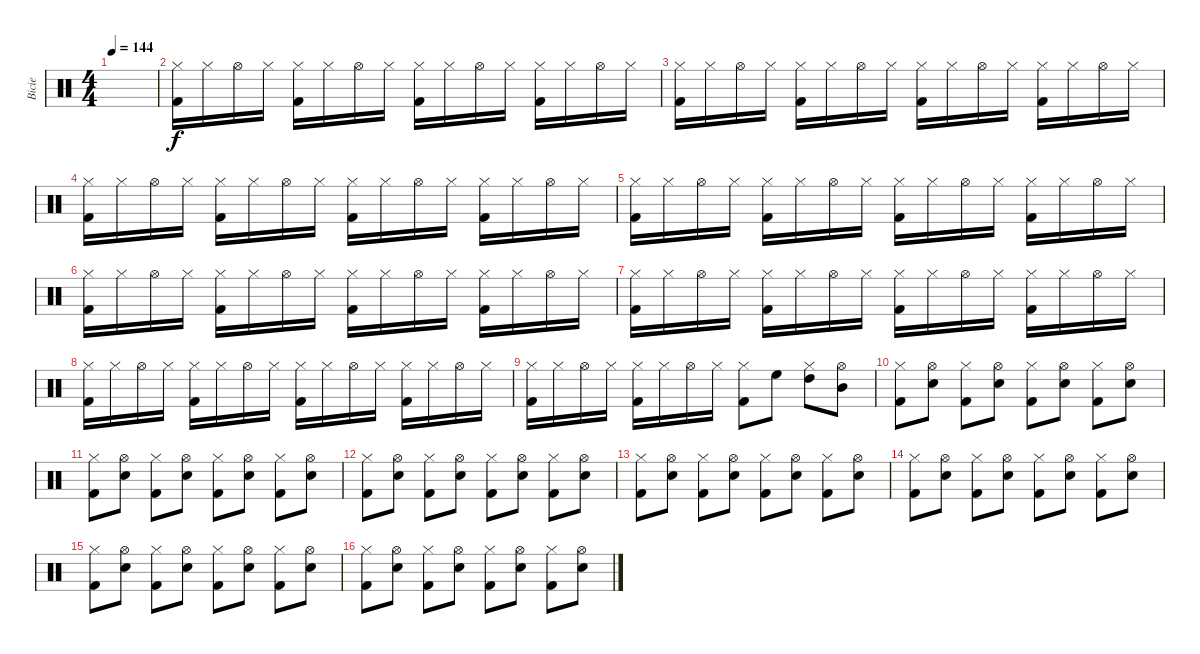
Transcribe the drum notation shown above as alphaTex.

\track ("Bicie" "Bicie") {instrument percussion}
\staff {score}
\articulation defaults
\ts (4 4)
\tempo 144
\clef neutral
\ks c
|
("Hi-Hat (closed)" "Kick (hit) 2").16 "Hi-Hat (closed)".16 "Hi-Hat (open)".16 "Hi-Hat (closed)".16 ("Hi-Hat (closed)" "Kick (hit) 2").16 "Hi-Hat (closed)".16 "Hi-Hat (open)".16 "Hi-Hat (closed)".16 ("Hi-Hat (closed)" "Kick (hit) 2").16 "Hi-Hat (closed)".16 "Hi-Hat (open)".16 "Hi-Hat (closed)".16 ("Hi-Hat (closed)" "Kick (hit) 2").16 "Hi-Hat (closed)".16 "Hi-Hat (open)".16 "Hi-Hat (closed)".16 |
("Hi-Hat (closed)" "Kick (hit) 2").16 "Hi-Hat (closed)".16 "Hi-Hat (open)".16 "Hi-Hat (closed)".16 ("Hi-Hat (closed)" "Kick (hit) 2").16 "Hi-Hat (closed)".16 "Hi-Hat (open)".16 "Hi-Hat (closed)".16 ("Hi-Hat (closed)" "Kick (hit) 2").16 "Hi-Hat (closed)".16 "Hi-Hat (open)".16 "Hi-Hat (closed)".16 ("Hi-Hat (closed)" "Kick (hit) 2").16 "Hi-Hat (closed)".16 "Hi-Hat (open)".16 "Hi-Hat (closed)".16 |
("Hi-Hat (closed)" "Kick (hit) 2").16 "Hi-Hat (closed)".16 "Hi-Hat (open)".16 "Hi-Hat (closed)".16 ("Hi-Hat (closed)" "Kick (hit) 2").16 "Hi-Hat (closed)".16 "Hi-Hat (open)".16 "Hi-Hat (closed)".16 ("Hi-Hat (closed)" "Kick (hit) 2").16 "Hi-Hat (closed)".16 "Hi-Hat (open)".16 "Hi-Hat (closed)".16 ("Hi-Hat (closed)" "Kick (hit) 2").16 "Hi-Hat (closed)".16 "Hi-Hat (open)".16 "Hi-Hat (closed)".16 |
("Hi-Hat (closed)" "Kick (hit) 2").16 "Hi-Hat (closed)".16 "Hi-Hat (open)".16 "Hi-Hat (closed)".16 ("Hi-Hat (closed)" "Kick (hit) 2").16 "Hi-Hat (closed)".16 "Hi-Hat (open)".16 "Hi-Hat (closed)".16 ("Hi-Hat (closed)" "Kick (hit) 2").16 "Hi-Hat (closed)".16 "Hi-Hat (open)".16 "Hi-Hat (closed)".16 ("Hi-Hat (closed)" "Kick (hit) 2").16 "Hi-Hat (closed)".16 "Hi-Hat (open)".16 "Hi-Hat (closed)".16 |
("Hi-Hat (closed)" "Kick (hit) 2").16 "Hi-Hat (closed)".16 "Hi-Hat (open)".16 "Hi-Hat (closed)".16 ("Hi-Hat (closed)" "Kick (hit) 2").16 "Hi-Hat (closed)".16 "Hi-Hat (open)".16 "Hi-Hat (closed)".16 ("Hi-Hat (closed)" "Kick (hit) 2").16 "Hi-Hat (closed)".16 "Hi-Hat (open)".16 "Hi-Hat (closed)".16 ("Hi-Hat (closed)" "Kick (hit) 2").16 "Hi-Hat (closed)".16 "Hi-Hat (open)".16 "Hi-Hat (closed)".16 |
("Hi-Hat (closed)" "Kick (hit) 2").16 "Hi-Hat (closed)".16 "Hi-Hat (open)".16 "Hi-Hat (closed)".16 ("Hi-Hat (closed)" "Kick (hit) 2").16 "Hi-Hat (closed)".16 "Hi-Hat (open)".16 "Hi-Hat (closed)".16 ("Hi-Hat (closed)" "Kick (hit) 2").16 "Hi-Hat (closed)".16 "Hi-Hat (open)".16 "Hi-Hat (closed)".16 ("Hi-Hat (closed)" "Kick (hit) 2").16 "Hi-Hat (closed)".16 "Hi-Hat (open)".16 "Hi-Hat (closed)".16 |
("Hi-Hat (closed)" "Kick (hit) 2").16 "Hi-Hat (closed)".16 "Hi-Hat (open)".16 "Hi-Hat (closed)".16 ("Hi-Hat (closed)" "Kick (hit) 2").16 "Hi-Hat (closed)".16 "Hi-Hat (open)".16 "Hi-Hat (closed)".16 ("Hi-Hat (closed)" "Kick (hit) 2").16 "Hi-Hat (closed)".16 "Hi-Hat (open)".16 "Hi-Hat (closed)".16 ("Hi-Hat (closed)" "Kick (hit) 2").16 "Hi-Hat (closed)".16 "Hi-Hat (open)".16 "Hi-Hat (closed)".16 |
("Hi-Hat (closed)" "Kick (hit) 2").16 "Hi-Hat (closed)".16 "Hi-Hat (open)".16 "Hi-Hat (closed)".16 ("Hi-Hat (closed)" "Kick (hit) 2").16 "Hi-Hat (closed)".16 "Hi-Hat (open)".16 "Hi-Hat (closed)".16 ("Hi-Hat (closed)" "Kick (hit) 2").8 "High Floor Tom (hit)".8 ("High Tom (hit)" "Hi-Hat (closed)").8 ("Mid Tom (hit)" "Hi-Hat (open)").8 |
("Hi-Hat (closed)" "Kick (hit) 2").8 ("Hi-Hat (open)" "Electric Snare (hit)").8 ("Hi-Hat (closed)" "Kick (hit) 2").8 ("Hi-Hat (open)" "Electric Snare (hit)").8 ("Hi-Hat (closed)" "Kick (hit) 2").8 ("Hi-Hat (open)" "Electric Snare (hit)").8 ("Hi-Hat (closed)" "Kick (hit) 2").8 ("Hi-Hat (open)" "Electric Snare (hit)").8 |
("Hi-Hat (closed)" "Kick (hit) 2").8 ("Hi-Hat (open)" "Electric Snare (hit)").8 ("Hi-Hat (closed)" "Kick (hit) 2").8 ("Hi-Hat (open)" "Electric Snare (hit)").8 ("Hi-Hat (closed)" "Kick (hit) 2").8 ("Hi-Hat (open)" "Electric Snare (hit)").8 ("Hi-Hat (closed)" "Kick (hit) 2").8 ("Hi-Hat (open)" "Electric Snare (hit)").8 |
("Hi-Hat (closed)" "Kick (hit) 2").8 ("Hi-Hat (open)" "Electric Snare (hit)").8 ("Hi-Hat (closed)" "Kick (hit) 2").8 ("Hi-Hat (open)" "Electric Snare (hit)").8 ("Hi-Hat (closed)" "Kick (hit) 2").8 ("Hi-Hat (open)" "Electric Snare (hit)").8 ("Hi-Hat (closed)" "Kick (hit) 2").8 ("Hi-Hat (open)" "Electric Snare (hit)").8 |
("Hi-Hat (closed)" "Kick (hit) 2").8 ("Hi-Hat (open)" "Electric Snare (hit)").8 ("Hi-Hat (closed)" "Kick (hit) 2").8 ("Hi-Hat (open)" "Electric Snare (hit)").8 ("Hi-Hat (closed)" "Kick (hit) 2").8 ("Hi-Hat (open)" "Electric Snare (hit)").8 ("Hi-Hat (closed)" "Kick (hit) 2").8 ("Hi-Hat (open)" "Electric Snare (hit)").8 |
("Hi-Hat (closed)" "Kick (hit) 2").8 ("Hi-Hat (open)" "Electric Snare (hit)").8 ("Hi-Hat (closed)" "Kick (hit) 2").8 ("Hi-Hat (open)" "Electric Snare (hit)").8 ("Hi-Hat (closed)" "Kick (hit) 2").8 ("Hi-Hat (open)" "Electric Snare (hit)").8 ("Hi-Hat (closed)" "Kick (hit) 2").8 ("Hi-Hat (open)" "Electric Snare (hit)").8 |
("Hi-Hat (closed)" "Kick (hit) 2").8 ("Hi-Hat (open)" "Electric Snare (hit)").8 ("Hi-Hat (closed)" "Kick (hit) 2").8 ("Hi-Hat (open)" "Electric Snare (hit)").8 ("Hi-Hat (closed)" "Kick (hit) 2").8 ("Hi-Hat (open)" "Electric Snare (hit)").8 ("Hi-Hat (closed)" "Kick (hit) 2").8 ("Hi-Hat (open)" "Electric Snare (hit)").8 |
("Hi-Hat (closed)" "Kick (hit) 2").8 ("Hi-Hat (open)" "Electric Snare (hit)").8 ("Hi-Hat (closed)" "Kick (hit) 2").8 ("Hi-Hat (open)" "Electric Snare (hit)").8 ("Hi-Hat (closed)" "Kick (hit) 2").8 ("Hi-Hat (open)" "Electric Snare (hit)").8 ("Hi-Hat (closed)" "Kick (hit) 2").8 ("Hi-Hat (open)" "Electric Snare (hit)").8
